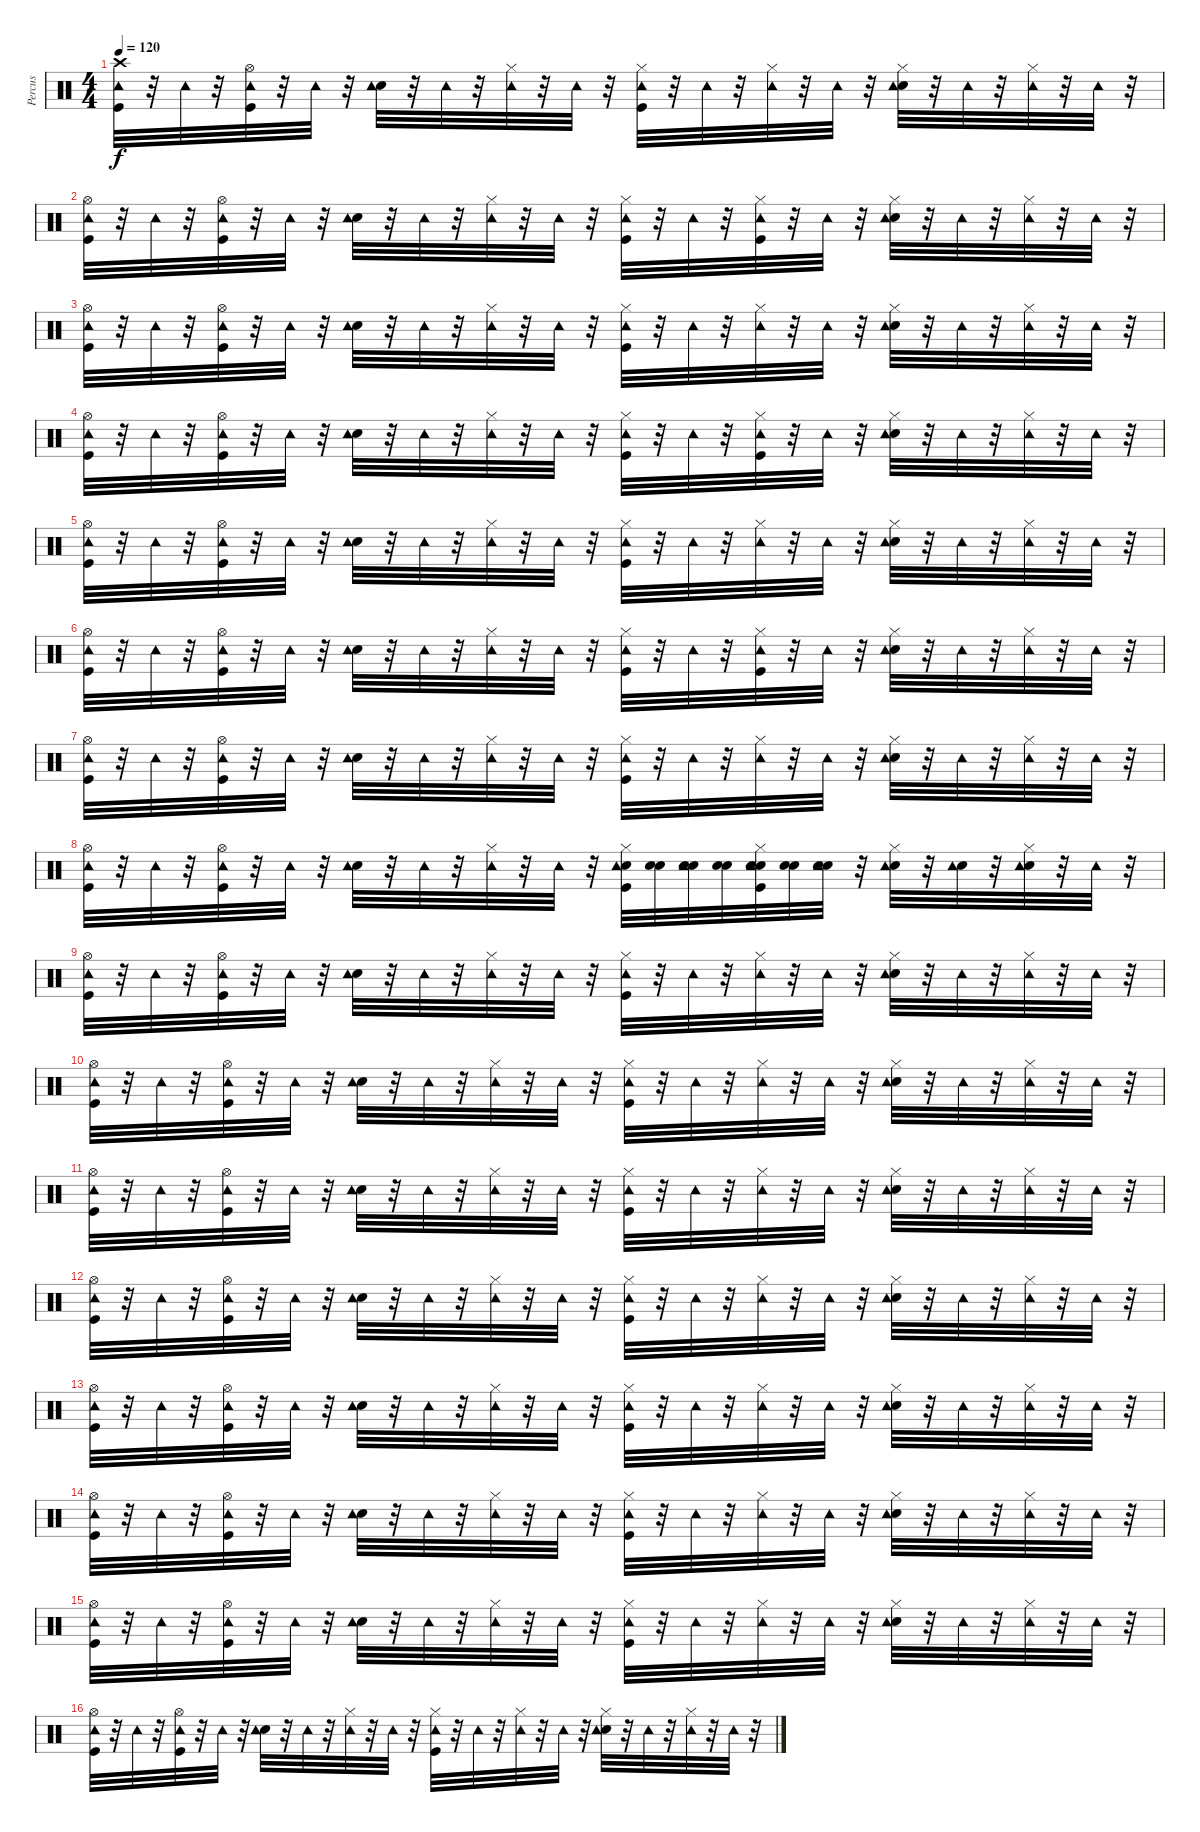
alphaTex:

\track ("Percus" "Percus") {instrument percussion}
\staff {score}
\articulation defaults
\ts (4 4)
\tempo 120
\clef neutral
\ks c
("Kick (hit)" "Crash high (hit)" "Tambourine (hit)").32{dy f} r.32 "Tambourine (hit)".32 r.32 ("Kick (hit)" "Hi-Hat (open)" "Tambourine (hit)").32 r.32 "Tambourine (hit)".32 r.32 ("Electric Snare (hit)" "Tambourine (hit)").32 r.32 "Tambourine (hit)".32 r.32 ("Hi-Hat (closed)" "Tambourine (hit)").32 r.32 "Tambourine (hit)".32 r.32 ("Kick (hit)" "Hi-Hat (closed)" "Tambourine (hit)").32 r.32 "Tambourine (hit)".32 r.32 ("Hi-Hat (closed)" "Tambourine (hit)").32 r.32 "Tambourine (hit)".32 r.32 ("Electric Snare (hit)" "Hi-Hat (closed)" "Tambourine (hit)").32 r.32 "Tambourine (hit)".32 r.32 ("Hi-Hat (closed)" "Tambourine (hit)").32 r.32 "Tambourine (hit)".32 r.32 |
("Kick (hit)" "Hi-Hat (open)" "Tambourine (hit)").32 r.32 "Tambourine (hit)".32 r.32 ("Kick (hit)" "Hi-Hat (open)" "Tambourine (hit)").32 r.32 "Tambourine (hit)".32 r.32 ("Electric Snare (hit)" "Tambourine (hit)").32 r.32 "Tambourine (hit)".32 r.32 ("Hi-Hat (closed)" "Tambourine (hit)").32 r.32 "Tambourine (hit)".32 r.32 ("Kick (hit)" "Hi-Hat (closed)" "Tambourine (hit)").32 r.32 "Tambourine (hit)".32 r.32 ("Kick (hit)" "Hi-Hat (closed)" "Tambourine (hit)").32 r.32 "Tambourine (hit)".32 r.32 ("Electric Snare (hit)" "Hi-Hat (closed)" "Tambourine (hit)").32 r.32 "Tambourine (hit)".32 r.32 ("Hi-Hat (closed)" "Tambourine (hit)").32 r.32 "Tambourine (hit)".32 r.32 |
("Kick (hit)" "Hi-Hat (open)" "Tambourine (hit)").32 r.32 "Tambourine (hit)".32 r.32 ("Kick (hit)" "Hi-Hat (open)" "Tambourine (hit)").32 r.32 "Tambourine (hit)".32 r.32 ("Electric Snare (hit)" "Tambourine (hit)").32 r.32 "Tambourine (hit)".32 r.32 ("Hi-Hat (closed)" "Tambourine (hit)").32 r.32 "Tambourine (hit)".32 r.32 ("Kick (hit)" "Hi-Hat (closed)" "Tambourine (hit)").32 r.32 "Tambourine (hit)".32 r.32 ("Hi-Hat (closed)" "Tambourine (hit)").32 r.32 "Tambourine (hit)".32 r.32 ("Electric Snare (hit)" "Hi-Hat (closed)" "Tambourine (hit)").32 r.32 "Tambourine (hit)".32 r.32 ("Hi-Hat (closed)" "Tambourine (hit)").32 r.32 "Tambourine (hit)".32 r.32 |
("Kick (hit)" "Hi-Hat (open)" "Tambourine (hit)").32 r.32 "Tambourine (hit)".32 r.32 ("Kick (hit)" "Hi-Hat (open)" "Tambourine (hit)").32 r.32 "Tambourine (hit)".32 r.32 ("Electric Snare (hit)" "Tambourine (hit)").32 r.32 "Tambourine (hit)".32 r.32 ("Hi-Hat (closed)" "Tambourine (hit)").32 r.32 "Tambourine (hit)".32 r.32 ("Kick (hit)" "Hi-Hat (closed)" "Tambourine (hit)").32 r.32 "Tambourine (hit)".32 r.32 ("Kick (hit)" "Hi-Hat (closed)" "Tambourine (hit)").32 r.32 "Tambourine (hit)".32 r.32 ("Electric Snare (hit)" "Hi-Hat (closed)" "Tambourine (hit)").32 r.32 "Tambourine (hit)".32 r.32 ("Hi-Hat (closed)" "Tambourine (hit)").32 r.32 "Tambourine (hit)".32 r.32 |
("Kick (hit)" "Hi-Hat (open)" "Tambourine (hit)").32 r.32 "Tambourine (hit)".32 r.32 ("Kick (hit)" "Hi-Hat (open)" "Tambourine (hit)").32 r.32 "Tambourine (hit)".32 r.32 ("Electric Snare (hit)" "Tambourine (hit)").32 r.32 "Tambourine (hit)".32 r.32 ("Hi-Hat (closed)" "Tambourine (hit)").32 r.32 "Tambourine (hit)".32 r.32 ("Kick (hit)" "Hi-Hat (closed)" "Tambourine (hit)").32 r.32 "Tambourine (hit)".32 r.32 ("Hi-Hat (closed)" "Tambourine (hit)").32 r.32 "Tambourine (hit)".32 r.32 ("Electric Snare (hit)" "Hi-Hat (closed)" "Tambourine (hit)").32 r.32 "Tambourine (hit)".32 r.32 ("Hi-Hat (closed)" "Tambourine (hit)").32 r.32 "Tambourine (hit)".32 r.32 |
("Kick (hit)" "Hi-Hat (open)" "Tambourine (hit)").32 r.32 "Tambourine (hit)".32 r.32 ("Kick (hit)" "Hi-Hat (open)" "Tambourine (hit)").32 r.32 "Tambourine (hit)".32 r.32 ("Electric Snare (hit)" "Tambourine (hit)").32 r.32 "Tambourine (hit)".32 r.32 ("Hi-Hat (closed)" "Tambourine (hit)").32 r.32 "Tambourine (hit)".32 r.32 ("Kick (hit)" "Hi-Hat (closed)" "Tambourine (hit)").32 r.32 "Tambourine (hit)".32 r.32 ("Kick (hit)" "Hi-Hat (closed)" "Tambourine (hit)").32 r.32 "Tambourine (hit)".32 r.32 ("Electric Snare (hit)" "Hi-Hat (closed)" "Tambourine (hit)").32 r.32 "Tambourine (hit)".32 r.32 ("Hi-Hat (closed)" "Tambourine (hit)").32 r.32 "Tambourine (hit)".32 r.32 |
("Kick (hit)" "Hi-Hat (open)" "Tambourine (hit)").32 r.32 "Tambourine (hit)".32 r.32 ("Kick (hit)" "Hi-Hat (open)" "Tambourine (hit)").32 r.32 "Tambourine (hit)".32 r.32 ("Electric Snare (hit)" "Tambourine (hit)").32 r.32 "Tambourine (hit)".32 r.32 ("Hi-Hat (closed)" "Tambourine (hit)").32 r.32 "Tambourine (hit)".32 r.32 ("Kick (hit)" "Hi-Hat (closed)" "Tambourine (hit)").32 r.32 "Tambourine (hit)".32 r.32 ("Hi-Hat (closed)" "Tambourine (hit)").32 r.32 "Tambourine (hit)".32 r.32 ("Electric Snare (hit)" "Hi-Hat (closed)" "Tambourine (hit)").32 r.32 "Tambourine (hit)".32 r.32 ("Hi-Hat (closed)" "Tambourine (hit)").32 r.32 "Tambourine (hit)".32 r.32 |
("Kick (hit)" "Hi-Hat (open)" "Tambourine (hit)").32 r.32 "Tambourine (hit)".32 r.32 ("Kick (hit)" "Hi-Hat (open)" "Tambourine (hit)").32 r.32 "Tambourine (hit)".32 r.32 ("Electric Snare (hit)" "Tambourine (hit)").32 r.32 "Tambourine (hit)".32 r.32 ("Hi-Hat (closed)" "Tambourine (hit)").32 r.32 "Tambourine (hit)".32 r.32 ("Kick (hit)" "Electric Snare (hit)" "Hi-Hat (closed)" "Tambourine (hit)").32 ("Snare (hit)" "Electric Snare (hit)").32 ("Snare (hit)" "Electric Snare (hit)" "Tambourine (hit)").32 ("Snare (hit)" "Electric Snare (hit)").32 ("Snare (hit)" "Kick (hit)" "Electric Snare (hit)" "Hi-Hat (closed)" "Tambourine (hit)").32 ("Snare (hit)" "Electric Snare (hit)").32 ("Snare (hit)" "Electric Snare (hit)" "Tambourine (hit)").32 r.32 ("Electric Snare (hit)" "Hi-Hat (closed)" "Tambourine (hit)").32 r.32 ("Electric Snare (hit)" "Tambourine (hit)").32 r.32 ("Electric Snare (hit)" "Hi-Hat (closed)" "Tambourine (hit)").32 r.32 "Tambourine (hit)".32 r.32 |
("Kick (hit)" "Hi-Hat (open)" "Tambourine (hit)").32 r.32 "Tambourine (hit)".32 r.32 ("Kick (hit)" "Hi-Hat (open)" "Tambourine (hit)").32 r.32 "Tambourine (hit)".32 r.32 ("Electric Snare (hit)" "Tambourine (hit)").32 r.32 "Tambourine (hit)".32 r.32 ("Hi-Hat (closed)" "Tambourine (hit)").32 r.32 "Tambourine (hit)".32 r.32 ("Kick (hit)" "Hi-Hat (closed)" "Tambourine (hit)").32 r.32 "Tambourine (hit)".32 r.32 ("Hi-Hat (closed)" "Tambourine (hit)").32 r.32 "Tambourine (hit)".32 r.32 ("Electric Snare (hit)" "Hi-Hat (closed)" "Tambourine (hit)").32 r.32 "Tambourine (hit)".32 r.32 ("Hi-Hat (closed)" "Tambourine (hit)").32 r.32 "Tambourine (hit)".32 r.32 |
("Kick (hit)" "Hi-Hat (open)" "Tambourine (hit)").32 r.32 "Tambourine (hit)".32 r.32 ("Kick (hit)" "Hi-Hat (open)" "Tambourine (hit)").32 r.32 "Tambourine (hit)".32 r.32 ("Electric Snare (hit)" "Tambourine (hit)").32 r.32 "Tambourine (hit)".32 r.32 ("Hi-Hat (closed)" "Tambourine (hit)").32 r.32 "Tambourine (hit)".32 r.32 ("Kick (hit)" "Hi-Hat (closed)" "Tambourine (hit)").32 r.32 "Tambourine (hit)".32 r.32 ("Hi-Hat (closed)" "Tambourine (hit)").32 r.32 "Tambourine (hit)".32 r.32 ("Electric Snare (hit)" "Hi-Hat (closed)" "Tambourine (hit)").32 r.32 "Tambourine (hit)".32 r.32 ("Hi-Hat (closed)" "Tambourine (hit)").32 r.32 "Tambourine (hit)".32 r.32 |
("Kick (hit)" "Hi-Hat (open)" "Tambourine (hit)").32 r.32 "Tambourine (hit)".32 r.32 ("Kick (hit)" "Hi-Hat (open)" "Tambourine (hit)").32 r.32 "Tambourine (hit)".32 r.32 ("Electric Snare (hit)" "Tambourine (hit)").32 r.32 "Tambourine (hit)".32 r.32 ("Hi-Hat (closed)" "Tambourine (hit)").32 r.32 "Tambourine (hit)".32 r.32 ("Kick (hit)" "Hi-Hat (closed)" "Tambourine (hit)").32 r.32 "Tambourine (hit)".32 r.32 ("Hi-Hat (closed)" "Tambourine (hit)").32 r.32 "Tambourine (hit)".32 r.32 ("Electric Snare (hit)" "Hi-Hat (closed)" "Tambourine (hit)").32 r.32 "Tambourine (hit)".32 r.32 ("Hi-Hat (closed)" "Tambourine (hit)").32 r.32 "Tambourine (hit)".32 r.32 |
("Kick (hit)" "Hi-Hat (open)" "Tambourine (hit)").32 r.32 "Tambourine (hit)".32 r.32 ("Kick (hit)" "Hi-Hat (open)" "Tambourine (hit)").32 r.32 "Tambourine (hit)".32 r.32 ("Electric Snare (hit)" "Tambourine (hit)").32 r.32 "Tambourine (hit)".32 r.32 ("Hi-Hat (closed)" "Tambourine (hit)").32 r.32 "Tambourine (hit)".32 r.32 ("Kick (hit)" "Hi-Hat (closed)" "Tambourine (hit)").32 r.32 "Tambourine (hit)".32 r.32 ("Hi-Hat (closed)" "Tambourine (hit)").32 r.32 "Tambourine (hit)".32 r.32 ("Electric Snare (hit)" "Hi-Hat (closed)" "Tambourine (hit)").32 r.32 "Tambourine (hit)".32 r.32 ("Hi-Hat (closed)" "Tambourine (hit)").32 r.32 "Tambourine (hit)".32 r.32 |
("Kick (hit)" "Hi-Hat (open)" "Tambourine (hit)").32 r.32 "Tambourine (hit)".32 r.32 ("Kick (hit)" "Hi-Hat (open)" "Tambourine (hit)").32 r.32 "Tambourine (hit)".32 r.32 ("Electric Snare (hit)" "Tambourine (hit)").32 r.32 "Tambourine (hit)".32 r.32 ("Hi-Hat (closed)" "Tambourine (hit)").32 r.32 "Tambourine (hit)".32 r.32 ("Kick (hit)" "Hi-Hat (closed)" "Tambourine (hit)").32 r.32 "Tambourine (hit)".32 r.32 ("Hi-Hat (closed)" "Tambourine (hit)").32 r.32 "Tambourine (hit)".32 r.32 ("Electric Snare (hit)" "Hi-Hat (closed)" "Tambourine (hit)").32 r.32 "Tambourine (hit)".32 r.32 ("Hi-Hat (closed)" "Tambourine (hit)").32 r.32 "Tambourine (hit)".32 r.32 |
("Kick (hit)" "Hi-Hat (open)" "Tambourine (hit)").32 r.32 "Tambourine (hit)".32 r.32 ("Kick (hit)" "Hi-Hat (open)" "Tambourine (hit)").32 r.32 "Tambourine (hit)".32 r.32 ("Electric Snare (hit)" "Tambourine (hit)").32 r.32 "Tambourine (hit)".32 r.32 ("Hi-Hat (closed)" "Tambourine (hit)").32 r.32 "Tambourine (hit)".32 r.32 ("Kick (hit)" "Hi-Hat (closed)" "Tambourine (hit)").32 r.32 "Tambourine (hit)".32 r.32 ("Hi-Hat (closed)" "Tambourine (hit)").32 r.32 "Tambourine (hit)".32 r.32 ("Electric Snare (hit)" "Hi-Hat (closed)" "Tambourine (hit)").32 r.32 "Tambourine (hit)".32 r.32 ("Hi-Hat (closed)" "Tambourine (hit)").32 r.32 "Tambourine (hit)".32 r.32 |
("Kick (hit)" "Hi-Hat (open)" "Tambourine (hit)").32 r.32 "Tambourine (hit)".32 r.32 ("Kick (hit)" "Hi-Hat (open)" "Tambourine (hit)").32 r.32 "Tambourine (hit)".32 r.32 ("Electric Snare (hit)" "Tambourine (hit)").32 r.32 "Tambourine (hit)".32 r.32 ("Hi-Hat (closed)" "Tambourine (hit)").32 r.32 "Tambourine (hit)".32 r.32 ("Kick (hit)" "Hi-Hat (closed)" "Tambourine (hit)").32 r.32 "Tambourine (hit)".32 r.32 ("Hi-Hat (closed)" "Tambourine (hit)").32 r.32 "Tambourine (hit)".32 r.32 ("Electric Snare (hit)" "Hi-Hat (closed)" "Tambourine (hit)").32 r.32 "Tambourine (hit)".32 r.32 ("Hi-Hat (closed)" "Tambourine (hit)").32 r.32 "Tambourine (hit)".32 r.32 |
("Kick (hit)" "Hi-Hat (open)" "Tambourine (hit)").32 r.32 "Tambourine (hit)".32 r.32 ("Kick (hit)" "Hi-Hat (open)" "Tambourine (hit)").32 r.32 "Tambourine (hit)".32 r.32 ("Electric Snare (hit)" "Tambourine (hit)").32 r.32 "Tambourine (hit)".32 r.32 ("Hi-Hat (closed)" "Tambourine (hit)").32 r.32 "Tambourine (hit)".32 r.32 ("Kick (hit)" "Hi-Hat (closed)" "Tambourine (hit)").32 r.32 "Tambourine (hit)".32 r.32 ("Hi-Hat (closed)" "Tambourine (hit)").32 r.32 "Tambourine (hit)".32 r.32 ("Electric Snare (hit)" "Hi-Hat (closed)" "Tambourine (hit)").32 r.32 "Tambourine (hit)".32 r.32 ("Hi-Hat (closed)" "Tambourine (hit)").32 r.32 "Tambourine (hit)".32 r.32
